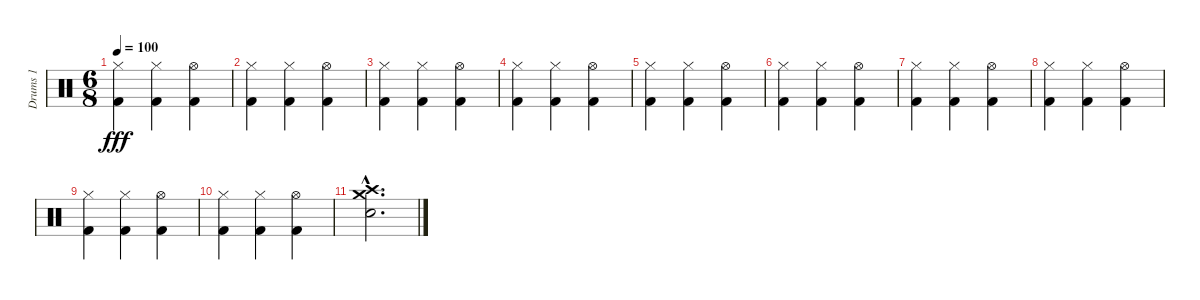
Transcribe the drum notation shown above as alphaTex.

\track ("Drums 1" "Drums 1") {instrument percussion}
\staff {score}
\articulation defaults
\ts (6 8)
\tempo 100
\clef neutral
\ks c
("Kick (hit) 2" "Hi-Hat (closed)").4{dy fff} ("Kick (hit) 2" "Hi-Hat (closed)").4 ("Kick (hit) 2" "Hi-Hat (open)").4 |
("Kick (hit) 2" "Hi-Hat (closed)").4 ("Kick (hit) 2" "Hi-Hat (closed)").4 ("Kick (hit) 2" "Hi-Hat (open)").4 |
("Kick (hit) 2" "Hi-Hat (closed)").4 ("Kick (hit) 2" "Hi-Hat (closed)").4 ("Kick (hit) 2" "Hi-Hat (open)").4 |
("Kick (hit) 2" "Hi-Hat (closed)").4 ("Kick (hit) 2" "Hi-Hat (closed)").4 ("Kick (hit) 2" "Hi-Hat (open)").4 |
("Kick (hit) 2" "Hi-Hat (closed)").4 ("Kick (hit) 2" "Hi-Hat (closed)").4 ("Kick (hit) 2" "Hi-Hat (open)").4 |
("Kick (hit) 2" "Hi-Hat (closed)").4 ("Kick (hit) 2" "Hi-Hat (closed)").4 ("Kick (hit) 2" "Hi-Hat (open)").4 |
("Kick (hit) 2" "Hi-Hat (closed)").4 ("Kick (hit) 2" "Hi-Hat (closed)").4 ("Kick (hit) 2" "Hi-Hat (open)").4 |
("Kick (hit) 2" "Hi-Hat (closed)").4 ("Kick (hit) 2" "Hi-Hat (closed)").4 ("Kick (hit) 2" "Hi-Hat (open)").4 |
("Kick (hit) 2" "Hi-Hat (closed)").4 ("Kick (hit) 2" "Hi-Hat (closed)").4 ("Kick (hit) 2" "Hi-Hat (open)").4 |
("Kick (hit) 2" "Hi-Hat (closed)").4 ("Kick (hit) 2" "Hi-Hat (closed)").4 ("Kick (hit) 2" "Hi-Hat (open)").4 |
("Snare (hit) 2"{hac} "Crash high (hit)"{hac} "Crash medium (hit)"{hac}).2{d}
